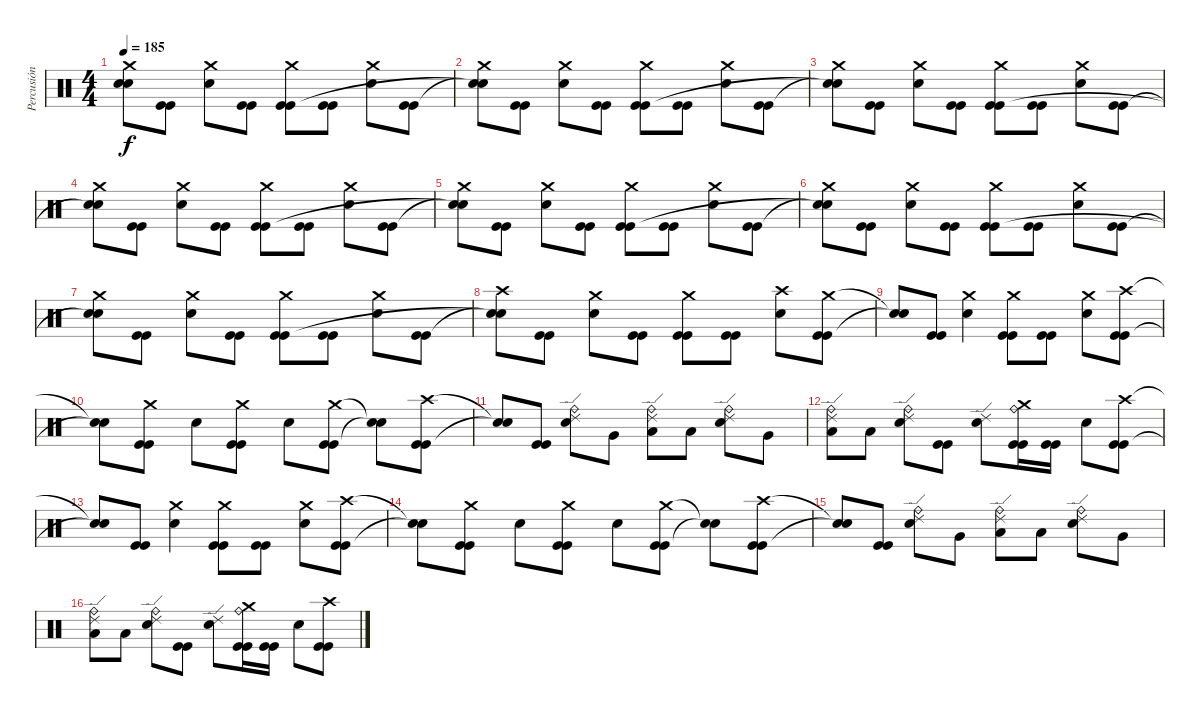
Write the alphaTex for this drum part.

\track ("Percusión" "Percusión") {instrument percussion}
\staff {score}
\articulation defaults
\ts (4 4)
\tempo 185
\clef neutral
\ks c
("Crash medium (hit)" "Snare (hit)"{t} "Snare (hit)"{t}).8{dy f} ("Kick (hit)" "Kick (hit)").8 ("Crash medium (hit)" "Electric Snare (hit)").8 ("Kick (hit)" "Kick (hit)").8 ("Crash medium (hit)" "Kick (hit)" "Kick (hit)").8 ("Kick (hit)" "Kick (hit)").8 ("Crash medium (hit)" "Electric Snare (hit)").8 ("Kick (hit)" "Kick (hit)").8 |
("Crash medium (hit)" "Snare (hit)"{t} "Snare (hit)"{t}).8 ("Kick (hit)" "Kick (hit)").8 ("Crash medium (hit)" "Electric Snare (hit)").8 ("Kick (hit)" "Kick (hit)").8 ("Crash medium (hit)" "Kick (hit)" "Kick (hit)").8 ("Kick (hit)" "Kick (hit)").8 ("Crash medium (hit)" "Electric Snare (hit)").8 ("Kick (hit)" "Kick (hit)").8 |
("Crash medium (hit)" "Snare (hit)"{t} "Snare (hit)"{t}).8 ("Kick (hit)" "Kick (hit)").8 ("Crash medium (hit)" "Electric Snare (hit)").8 ("Kick (hit)" "Kick (hit)").8 ("Crash medium (hit)" "Kick (hit)" "Kick (hit)").8 ("Kick (hit)" "Kick (hit)").8 ("Crash medium (hit)" "Electric Snare (hit)").8 ("Kick (hit)" "Kick (hit)").8 |
("Crash medium (hit)" "Snare (hit)"{t} "Snare (hit)"{t}).8 ("Kick (hit)" "Kick (hit)").8 ("Crash medium (hit)" "Electric Snare (hit)").8 ("Kick (hit)" "Kick (hit)").8 ("Crash medium (hit)" "Kick (hit)" "Kick (hit)").8 ("Kick (hit)" "Kick (hit)").8 ("Crash medium (hit)" "Electric Snare (hit)").8 ("Kick (hit)" "Kick (hit)").8 |
("Crash medium (hit)" "Snare (hit)"{t} "Snare (hit)"{t}).8 ("Kick (hit)" "Kick (hit)").8 ("Crash medium (hit)" "Electric Snare (hit)").8 ("Kick (hit)" "Kick (hit)").8 ("Crash medium (hit)" "Kick (hit)" "Kick (hit)").8 ("Kick (hit)" "Kick (hit)").8 ("Crash medium (hit)" "Electric Snare (hit)").8 ("Kick (hit)" "Kick (hit)").8 |
("Crash medium (hit)" "Snare (hit)"{t} "Snare (hit)"{t}).8 ("Kick (hit)" "Kick (hit)").8 ("Crash medium (hit)" "Electric Snare (hit)").8 ("Kick (hit)" "Kick (hit)").8 ("Crash medium (hit)" "Kick (hit)" "Kick (hit)").8 ("Kick (hit)" "Kick (hit)").8 ("Crash medium (hit)" "Electric Snare (hit)").8 ("Kick (hit)" "Kick (hit)").8 |
("Crash medium (hit)" "Snare (hit)"{t} "Snare (hit)"{t}).8 ("Kick (hit)" "Kick (hit)").8 ("Crash medium (hit)" "Electric Snare (hit)").8 ("Kick (hit)" "Kick (hit)").8 ("Crash medium (hit)" "Kick (hit)" "Kick (hit)").8 ("Kick (hit)" "Kick (hit)").8 ("Crash medium (hit)" "Electric Snare (hit)").8 ("Kick (hit)" "Kick (hit)").8 |
("Crash high (hit)" "Snare (hit)"{t} "Snare (hit)"{t}).8 ("Kick (hit)" "Kick (hit)").8 ("Crash medium (hit)" "Electric Snare (hit)").8 ("Kick (hit)" "Kick (hit)").8 ("Crash medium (hit)" "Kick (hit)" "Kick (hit)").8 ("Kick (hit)" "Kick (hit)").8 ("Crash high (hit)" "Electric Snare (hit)").8 ("Crash medium (hit)" "Kick (hit)" "Kick (hit)").8 |
("Snare (hit)"{t} "Snare (hit)"{t}).8 ("Kick (hit)" "Kick (hit)").8 ("Crash medium (hit)" "Electric Snare (hit)").4 ("Crash medium (hit)" "Kick (hit)" "Kick (hit)").8 ("Kick (hit)" "Kick (hit)").8 ("Crash medium (hit)" "Electric Snare (hit)").8 ("Crash high (hit)" "Kick (hit)" "Kick (hit)").8 |
("Snare (hit)"{t} "Snare (hit)"{t}).8 ("Crash medium (hit)" "Kick (hit)" "Kick (hit)").8 "Electric Snare (hit)".8 ("Crash medium (hit)" "Kick (hit)" "Kick (hit)").8 "Electric Snare (hit)".8 ("Crash medium (hit)" "Kick (hit)" "Kick (hit)").8 ("Snare (hit)"{t} "Snare (hit)"{t}).8 ("Crash high (hit)" "Kick (hit)" "Kick (hit)").8 |
("Snare (hit)"{t} "Snare (hit)"{t}).8 ("Kick (hit)" "Kick (hit)").8 ("Ride (edge) 2" "Ride (bell)" "Electric Snare (hit)").8 "Very Low Tom (hit)".8 ("Ride (edge) 2" "Ride (bell)" "Low Floor Tom (hit)").8 "Low Floor Tom (hit)".8 ("Ride (edge) 2" "Ride (bell)" "Electric Snare (hit)").8 "Very Low Tom (hit)".8 |
("Ride (edge) 2" "Ride (bell)" "Low Floor Tom (hit)").8 "Low Floor Tom (hit)".8 ("Ride (edge) 2" "Ride (bell)" "Electric Snare (hit)").8 ("Kick (hit)" "Kick (hit)").8 ("Ride (edge) 2" "Electric Snare (hit)").8 ("Crash medium (hit)" "Ride (bell)" "Kick (hit)" "Kick (hit)").16 ("Kick (hit)" "Kick (hit)").16 "Electric Snare (hit)".8 ("Crash high (hit)" "Kick (hit)" "Kick (hit)").8 |
("Snare (hit)"{t} "Snare (hit)"{t}).8 ("Kick (hit)" "Kick (hit)").8 ("Crash medium (hit)" "Electric Snare (hit)").4 ("Crash medium (hit)" "Kick (hit)" "Kick (hit)").8 ("Kick (hit)" "Kick (hit)").8 ("Crash medium (hit)" "Electric Snare (hit)").8 ("Crash high (hit)" "Kick (hit)" "Kick (hit)").8 |
("Snare (hit)"{t} "Snare (hit)"{t}).8 ("Crash medium (hit)" "Kick (hit)" "Kick (hit)").8 "Electric Snare (hit)".8 ("Crash medium (hit)" "Kick (hit)" "Kick (hit)").8 "Electric Snare (hit)".8 ("Crash medium (hit)" "Kick (hit)" "Kick (hit)").8 ("Snare (hit)"{t} "Snare (hit)"{t}).8 ("Crash high (hit)" "Kick (hit)" "Kick (hit)").8 |
("Snare (hit)"{t} "Snare (hit)"{t}).8 ("Kick (hit)" "Kick (hit)").8 ("Ride (edge) 2" "Ride (bell)" "Electric Snare (hit)").8 "Very Low Tom (hit)".8 ("Ride (edge) 2" "Ride (bell)" "Low Floor Tom (hit)").8 "Low Floor Tom (hit)".8 ("Ride (edge) 2" "Ride (bell)" "Electric Snare (hit)").8 "Very Low Tom (hit)".8 |
("Ride (edge) 2" "Ride (bell)" "Low Floor Tom (hit)").8 "Low Floor Tom (hit)".8 ("Ride (edge) 2" "Ride (bell)" "Electric Snare (hit)").8 ("Kick (hit)" "Kick (hit)").8 ("Ride (edge) 2" "Electric Snare (hit)").8 ("Crash medium (hit)" "Ride (bell)" "Kick (hit)" "Kick (hit)").16 ("Kick (hit)" "Kick (hit)").16 "Electric Snare (hit)".8 ("Crash high (hit)" "Kick (hit)" "Kick (hit)").8
